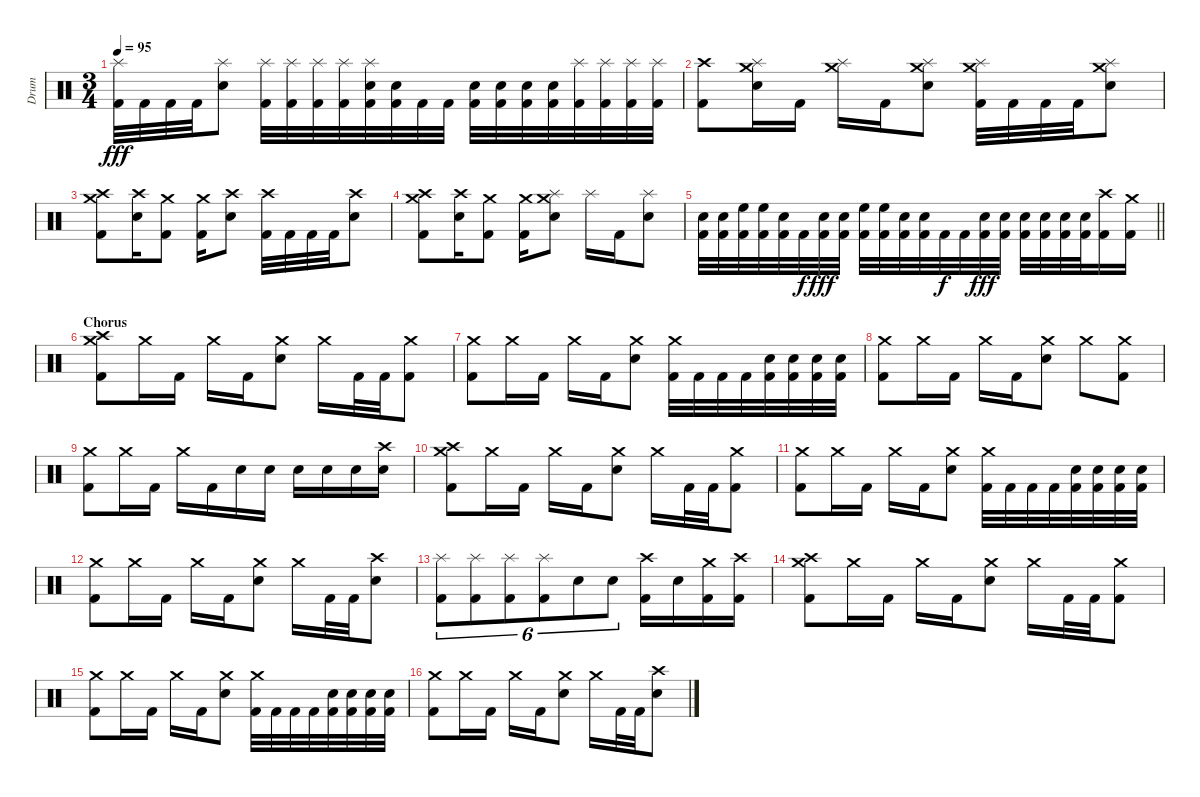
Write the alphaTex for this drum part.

\track ("Drum" "Drum") {instrument percussion}
\staff {score}
\articulation defaults
\ts (3 4)
\tempo 95
\clef neutral
\ks c
("Splash (hit)" "Kick (hit) 2").32{dy fff} "Kick (hit) 2".32 "Kick (hit) 2".32 "Kick (hit) 2".32 ("Splash (hit)" "Electric Snare (hit)").8 ("Splash (hit)" "Kick (hit) 2").32 ("Splash (hit)" "Kick (hit) 2").32 ("Splash (hit)" "Kick (hit) 2").32 ("Splash (hit)" "Kick (hit) 2").32 ("Splash (hit)" "Electric Snare (hit)" "Kick (hit) 2").32 ("Electric Snare (hit)" "Kick (hit) 2").32 "Kick (hit) 2".32 "Kick (hit) 2".32 ("Electric Snare (hit)" "Kick (hit) 2").32 ("Electric Snare (hit)" "Kick (hit) 2").32 ("Electric Snare (hit)" "Kick (hit) 2").32 ("Electric Snare (hit)" "Kick (hit) 2").32 ("Splash (hit)" "Kick (hit) 2").32 ("Splash (hit)" "Kick (hit) 2").32 ("Splash (hit)" "Kick (hit) 2").32 ("Splash (hit)" "Kick (hit) 2").32 |
("Crash high (hit)" "Kick (hit) 2").8 ("Crash medium (hit)" "Splash (hit)" "Electric Snare (hit)").16 "Kick (hit) 2".16 ("Crash medium (hit)" "Splash (hit)").16 "Kick (hit) 2".16 ("Crash medium (hit)" "Splash (hit)" "Electric Snare (hit)").8 ("Crash medium (hit)" "Splash (hit)" "Kick (hit) 2").32 "Kick (hit) 2".32 "Kick (hit) 2".32 "Kick (hit) 2".32 ("Crash medium (hit)" "Splash (hit)" "Electric Snare (hit)").8 |
("Crash medium (hit)" "Crash high (hit)" "Kick (hit) 2").8 ("Crash high (hit)" "Electric Snare (hit)").16 ("Crash medium (hit)" "Kick (hit) 2").8 ("Crash medium (hit)" "Kick (hit) 2").16 ("Crash high (hit)" "Electric Snare (hit)").8 ("Crash high (hit)" "Kick (hit) 2").32 "Kick (hit) 2".32 "Kick (hit) 2".32 "Kick (hit) 2".32 ("Crash high (hit)" "Electric Snare (hit)").8 |
("Crash medium (hit)" "Crash high (hit)" "Kick (hit) 2").8 ("Crash high (hit)" "Electric Snare (hit)").16 ("Crash medium (hit)" "Kick (hit) 2").8 ("Crash medium (hit)" "Kick (hit) 2").16 ("Splash (hit)" "Crash medium (hit)" "Electric Snare (hit)").8 "Splash (hit)".16 "Kick (hit) 2".16 ("Splash (hit)" "Electric Snare (hit)").8 |
\barLineRight lightlight
("Electric Snare (hit)" "Kick (hit) 2").32 ("Electric Snare (hit)" "Kick (hit) 2").32 ("High Floor Tom (hit)" "Kick (hit) 2").32 ("High Floor Tom (hit)" "Kick (hit) 2").32 ("Electric Snare (hit)" "Kick (hit) 2").32 "Kick (hit) 2".32{dy f} ("Electric Snare (hit)" "Kick (hit) 2").32{dy fff} ("Electric Snare (hit)" "Kick (hit) 2").32 ("High Floor Tom (hit)" "Kick (hit) 2").32 ("High Floor Tom (hit)" "Kick (hit) 2").32 ("Electric Snare (hit)" "Kick (hit) 2").32 ("Electric Snare (hit)" "Kick (hit) 2").32 "Kick (hit) 2".32{dy f} "Kick (hit) 2".32 ("Electric Snare (hit)" "Kick (hit) 2").32{dy fff} ("Electric Snare (hit)" "Kick (hit) 2").32 ("Electric Snare (hit)" "Kick (hit) 2").32 ("Electric Snare (hit)" "Kick (hit) 2").32 ("Electric Snare (hit)" "Kick (hit) 2").32 ("Electric Snare (hit)" "Kick (hit) 2").32 ("Crash high (hit)" "Kick (hit) 2").16 ("Crash medium (hit)" "Kick (hit) 2").16 |
\section ("" "Chorus")
("Crash medium (hit)" "Crash high (hit)" "Kick (hit) 2").8 "Crash medium (hit)".16 "Kick (hit) 2".16 "Crash medium (hit)".16 "Kick (hit) 2".16 ("Crash medium (hit)" "Electric Snare (hit)").8 "Crash medium (hit)".16 "Kick (hit) 2".32 "Kick (hit) 2".32 ("Crash medium (hit)" "Kick (hit) 2").8 |
("Crash medium (hit)" "Kick (hit) 2").8 "Crash medium (hit)".16 "Kick (hit) 2".16 "Crash medium (hit)".16 "Kick (hit) 2".16 ("Crash medium (hit)" "Electric Snare (hit)").8 ("Crash medium (hit)" "Kick (hit) 2").32 "Kick (hit) 2".32 "Kick (hit) 2".32 "Kick (hit) 2".32 ("Electric Snare (hit)" "Kick (hit) 2").32 ("Electric Snare (hit)" "Kick (hit) 2").32 ("Electric Snare (hit)" "Kick (hit) 2").32 ("Electric Snare (hit)" "Kick (hit) 2").32 |
("Crash medium (hit)" "Kick (hit) 2").8 "Crash medium (hit)".16 "Kick (hit) 2".16 "Crash medium (hit)".16 "Kick (hit) 2".16 ("Crash medium (hit)" "Electric Snare (hit)").8 "Crash medium (hit)".8 ("Crash medium (hit)" "Kick (hit) 2").8 |
("Crash medium (hit)" "Kick (hit) 2").8 "Crash medium (hit)".16 "Kick (hit) 2".16 "Crash medium (hit)".16 "Kick (hit) 2".16 "Electric Snare (hit)".16 "Electric Snare (hit)".16 "Electric Snare (hit)".16 "Electric Snare (hit)".16 "Electric Snare (hit)".16 ("Crash high (hit)" "Electric Snare (hit)").16 |
("Crash medium (hit)" "Crash high (hit)" "Kick (hit) 2").8 "Crash medium (hit)".16 "Kick (hit) 2".16 "Crash medium (hit)".16 "Kick (hit) 2".16 ("Crash medium (hit)" "Electric Snare (hit)").8 "Crash medium (hit)".16 "Kick (hit) 2".32 "Kick (hit) 2".32 ("Crash medium (hit)" "Kick (hit) 2").8 |
("Crash medium (hit)" "Kick (hit) 2").8 "Crash medium (hit)".16 "Kick (hit) 2".16 "Crash medium (hit)".16 "Kick (hit) 2".16 ("Crash medium (hit)" "Electric Snare (hit)").8 ("Crash medium (hit)" "Kick (hit) 2").32 "Kick (hit) 2".32 "Kick (hit) 2".32 "Kick (hit) 2".32 ("Electric Snare (hit)" "Kick (hit) 2").32 ("Electric Snare (hit)" "Kick (hit) 2").32 ("Electric Snare (hit)" "Kick (hit) 2").32 ("Electric Snare (hit)" "Kick (hit) 2").32 |
("Crash medium (hit)" "Kick (hit) 2").8 "Crash medium (hit)".16 "Kick (hit) 2".16 "Crash medium (hit)".16 "Kick (hit) 2".16 ("Crash medium (hit)" "Electric Snare (hit)").8 "Crash medium (hit)".16 "Kick (hit) 2".32 "Kick (hit) 2".32 ("Crash high (hit)" "Electric Snare (hit)").8 |
("Splash (hit)" "Kick (hit) 2").8{tu (6 4)} ("Splash (hit)" "Kick (hit) 2").8{tu (6 4)} ("Splash (hit)" "Kick (hit) 2").8{tu (6 4)} ("Splash (hit)" "Kick (hit) 2").8{tu (6 4)} "Electric Snare (hit)".8{tu (6 4)} "Electric Snare (hit)".8{tu (6 4)} ("Crash high (hit)" "Kick (hit) 2").16 "Electric Snare (hit)".16 ("Crash medium (hit)" "Kick (hit) 2").16 ("Crash high (hit)" "Kick (hit) 2").16 |
("Crash medium (hit)" "Crash high (hit)" "Kick (hit) 2").8 "Crash medium (hit)".16 "Kick (hit) 2".16 "Crash medium (hit)".16 "Kick (hit) 2".16 ("Crash medium (hit)" "Electric Snare (hit)").8 "Crash medium (hit)".16 "Kick (hit) 2".32 "Kick (hit) 2".32 ("Crash medium (hit)" "Kick (hit) 2").8 |
("Crash medium (hit)" "Kick (hit) 2").8 "Crash medium (hit)".16 "Kick (hit) 2".16 "Crash medium (hit)".16 "Kick (hit) 2".16 ("Crash medium (hit)" "Electric Snare (hit)").8 ("Crash medium (hit)" "Kick (hit) 2").32 "Kick (hit) 2".32 "Kick (hit) 2".32 "Kick (hit) 2".32 ("Electric Snare (hit)" "Kick (hit) 2").32 ("Electric Snare (hit)" "Kick (hit) 2").32 ("Electric Snare (hit)" "Kick (hit) 2").32 ("Electric Snare (hit)" "Kick (hit) 2").32 |
("Crash medium (hit)" "Kick (hit) 2").8 "Crash medium (hit)".16 "Kick (hit) 2".16 "Crash medium (hit)".16 "Kick (hit) 2".16 ("Crash medium (hit)" "Electric Snare (hit)").8 "Crash medium (hit)".16 "Kick (hit) 2".32 "Kick (hit) 2".32 ("Crash high (hit)" "Electric Snare (hit)").8
